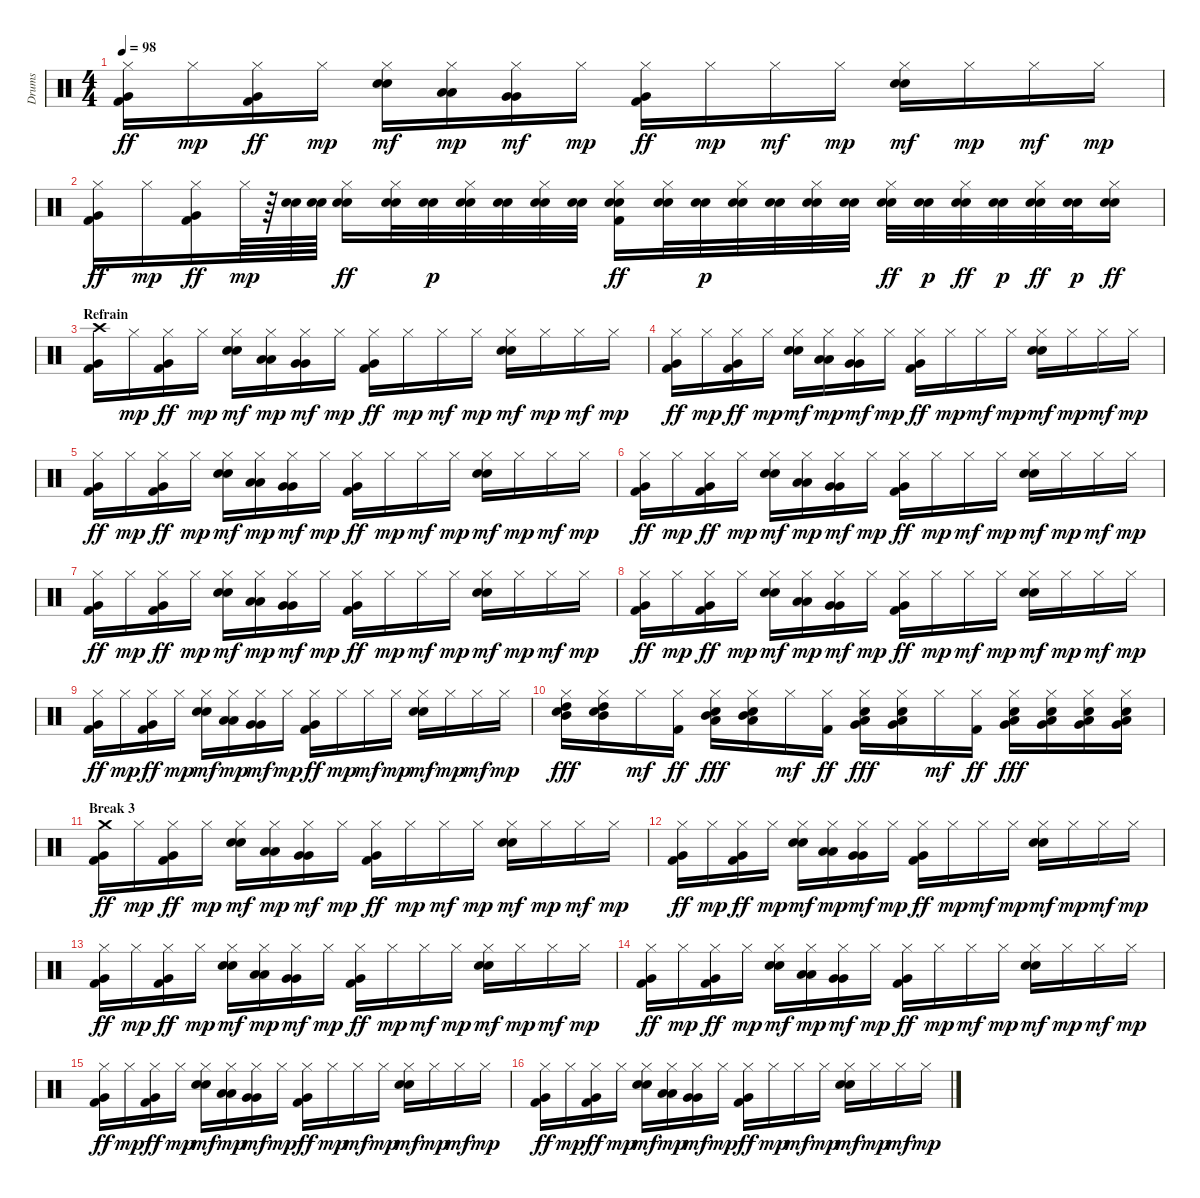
\track ("Drums" "Drums") {instrument percussion}
\staff {score}
\articulation defaults
\ts (4 4)
\tempo 98
\clef neutral
\ks c
("Hi-Hat (closed)" "Very Low Tom (hit)" "Kick (hit) 2").16{dy ff} "Hi-Hat (closed)".16{dy mp} ("Hi-Hat (closed)" "Very Low Tom (hit)" "Kick (hit) 2").16{dy ff} "Hi-Hat (closed)".16{dy mp} ("Hi-Hat (closed)" "Electric Snare (hit)" "Snare (hit) 2").16{dy mf} ("Hi-Hat (closed)" "Low Tom (hit)" "Low Tom (hit)").16{dy mp} ("Hi-Hat (closed)" "Very Low Tom (hit)" "Very Low Tom (hit)").16{dy mf} "Hi-Hat (closed)".16{dy mp} ("Hi-Hat (closed)" "Very Low Tom (hit)" "Kick (hit) 2").16{dy ff} "Hi-Hat (closed)".16{dy mp} "Hi-Hat (closed)".16{dy mf} "Hi-Hat (closed)".16{dy mp} ("Hi-Hat (closed)" "Electric Snare (hit)" "Snare (hit) 2").16{dy mf} "Hi-Hat (closed)".16{dy mp} "Hi-Hat (closed)".16{dy mf} "Hi-Hat (closed)".16{dy mp} |
("Hi-Hat (closed)" "Very Low Tom (hit)" "Kick (hit) 2").16{dy ff} "Hi-Hat (closed)".16{dy mp} ("Hi-Hat (closed)" "Very Low Tom (hit)" "Kick (hit) 2").16{dy ff} "Hi-Hat (closed)".64{dy mp} r.64 ("Electric Snare (hit)" "Snare (hit) 2").64 ("Electric Snare (hit)" "Snare (hit) 2").64 ("Hi-Hat (closed)" "Electric Snare (hit)" "Snare (hit) 2").16{dy ff} ("Hi-Hat (closed)" "Electric Snare (hit)" "Snare (hit) 2").32 ("Electric Snare (hit)" "Snare (hit) 2").32{dy p} ("Hi-Hat (closed)" "Electric Snare (hit)" "Snare (hit) 2").32 ("Electric Snare (hit)" "Snare (hit) 2").32 ("Hi-Hat (closed)" "Electric Snare (hit)" "Snare (hit) 2").32 ("Electric Snare (hit)" "Snare (hit) 2").32 ("Hi-Hat (closed)" "Electric Snare (hit)" "Snare (hit) 2" "Kick (hit) 2").16{dy ff} ("Hi-Hat (closed)" "Electric Snare (hit)" "Snare (hit) 2").32 ("Electric Snare (hit)" "Snare (hit) 2").32{dy p} ("Hi-Hat (closed)" "Electric Snare (hit)" "Snare (hit) 2").32 ("Electric Snare (hit)" "Snare (hit) 2").32 ("Hi-Hat (closed)" "Electric Snare (hit)" "Snare (hit) 2").32 ("Electric Snare (hit)" "Snare (hit) 2").32 ("Hi-Hat (closed)" "Electric Snare (hit)" "Snare (hit) 2").32{dy ff} ("Electric Snare (hit)" "Snare (hit) 2").32{dy p} ("Hi-Hat (closed)" "Electric Snare (hit)" "Snare (hit) 2").32{dy ff} ("Electric Snare (hit)" "Snare (hit) 2").32{dy p} ("Hi-Hat (closed)" "Electric Snare (hit)" "Snare (hit) 2").32{dy ff} ("Electric Snare (hit)" "Snare (hit) 2").32{dy p} ("Hi-Hat (closed)" "Electric Snare (hit)" "Snare (hit) 2").16{dy ff} |
\section ("" "Refrain")
("Crash high (hit)" "Very Low Tom (hit)" "Kick (hit) 2").16 "Hi-Hat (closed)".16{dy mp} ("Hi-Hat (closed)" "Very Low Tom (hit)" "Kick (hit) 2").16{dy ff} "Hi-Hat (closed)".16{dy mp} ("Hi-Hat (closed)" "Electric Snare (hit)" "Snare (hit) 2").16{dy mf} ("Hi-Hat (closed)" "Low Tom (hit)" "Low Tom (hit)").16{dy mp} ("Hi-Hat (closed)" "Very Low Tom (hit)" "Very Low Tom (hit)").16{dy mf} "Hi-Hat (closed)".16{dy mp} ("Hi-Hat (closed)" "Very Low Tom (hit)" "Kick (hit) 2").16{dy ff} "Hi-Hat (closed)".16{dy mp} "Hi-Hat (closed)".16{dy mf} "Hi-Hat (closed)".16{dy mp} ("Hi-Hat (closed)" "Electric Snare (hit)" "Snare (hit) 2").16{dy mf} "Hi-Hat (closed)".16{dy mp} "Hi-Hat (closed)".16{dy mf} "Hi-Hat (closed)".16{dy mp} |
("Hi-Hat (closed)" "Very Low Tom (hit)" "Kick (hit) 2").16{dy ff} "Hi-Hat (closed)".16{dy mp} ("Hi-Hat (closed)" "Very Low Tom (hit)" "Kick (hit) 2").16{dy ff} "Hi-Hat (closed)".16{dy mp} ("Hi-Hat (closed)" "Electric Snare (hit)" "Snare (hit) 2").16{dy mf} ("Hi-Hat (closed)" "Low Tom (hit)" "Low Tom (hit)").16{dy mp} ("Hi-Hat (closed)" "Very Low Tom (hit)" "Very Low Tom (hit)").16{dy mf} "Hi-Hat (closed)".16{dy mp} ("Hi-Hat (closed)" "Very Low Tom (hit)" "Kick (hit) 2").16{dy ff} "Hi-Hat (closed)".16{dy mp} "Hi-Hat (closed)".16{dy mf} "Hi-Hat (closed)".16{dy mp} ("Hi-Hat (closed)" "Electric Snare (hit)" "Snare (hit) 2").16{dy mf} "Hi-Hat (closed)".16{dy mp} "Hi-Hat (closed)".16{dy mf} "Hi-Hat (closed)".16{dy mp} |
("Hi-Hat (closed)" "Very Low Tom (hit)" "Kick (hit) 2").16{dy ff} "Hi-Hat (closed)".16{dy mp} ("Hi-Hat (closed)" "Very Low Tom (hit)" "Kick (hit) 2").16{dy ff} "Hi-Hat (closed)".16{dy mp} ("Hi-Hat (closed)" "Electric Snare (hit)" "Snare (hit) 2").16{dy mf} ("Hi-Hat (closed)" "Low Tom (hit)" "Low Tom (hit)").16{dy mp} ("Hi-Hat (closed)" "Very Low Tom (hit)" "Very Low Tom (hit)").16{dy mf} "Hi-Hat (closed)".16{dy mp} ("Hi-Hat (closed)" "Very Low Tom (hit)" "Kick (hit) 2").16{dy ff} "Hi-Hat (closed)".16{dy mp} "Hi-Hat (closed)".16{dy mf} "Hi-Hat (closed)".16{dy mp} ("Hi-Hat (closed)" "Electric Snare (hit)" "Snare (hit) 2").16{dy mf} "Hi-Hat (closed)".16{dy mp} "Hi-Hat (closed)".16{dy mf} "Hi-Hat (closed)".16{dy mp} |
("Hi-Hat (closed)" "Very Low Tom (hit)" "Kick (hit) 2").16{dy ff} "Hi-Hat (closed)".16{dy mp} ("Hi-Hat (closed)" "Very Low Tom (hit)" "Kick (hit) 2").16{dy ff} "Hi-Hat (closed)".16{dy mp} ("Hi-Hat (closed)" "Electric Snare (hit)" "Snare (hit) 2").16{dy mf} ("Hi-Hat (closed)" "Low Tom (hit)" "Low Tom (hit)").16{dy mp} ("Hi-Hat (closed)" "Very Low Tom (hit)" "Very Low Tom (hit)").16{dy mf} "Hi-Hat (closed)".16{dy mp} ("Hi-Hat (closed)" "Very Low Tom (hit)" "Kick (hit) 2").16{dy ff} "Hi-Hat (closed)".16{dy mp} "Hi-Hat (closed)".16{dy mf} "Hi-Hat (closed)".16{dy mp} ("Hi-Hat (closed)" "Electric Snare (hit)" "Snare (hit) 2").16{dy mf} "Hi-Hat (closed)".16{dy mp} "Hi-Hat (closed)".16{dy mf} "Hi-Hat (closed)".16{dy mp} |
("Hi-Hat (closed)" "Very Low Tom (hit)" "Kick (hit) 2").16{dy ff} "Hi-Hat (closed)".16{dy mp} ("Hi-Hat (closed)" "Very Low Tom (hit)" "Kick (hit) 2").16{dy ff} "Hi-Hat (closed)".16{dy mp} ("Hi-Hat (closed)" "Electric Snare (hit)" "Snare (hit) 2").16{dy mf} ("Hi-Hat (closed)" "Low Tom (hit)" "Low Tom (hit)").16{dy mp} ("Hi-Hat (closed)" "Very Low Tom (hit)" "Very Low Tom (hit)").16{dy mf} "Hi-Hat (closed)".16{dy mp} ("Hi-Hat (closed)" "Very Low Tom (hit)" "Kick (hit) 2").16{dy ff} "Hi-Hat (closed)".16{dy mp} "Hi-Hat (closed)".16{dy mf} "Hi-Hat (closed)".16{dy mp} ("Hi-Hat (closed)" "Electric Snare (hit)" "Snare (hit) 2").16{dy mf} "Hi-Hat (closed)".16{dy mp} "Hi-Hat (closed)".16{dy mf} "Hi-Hat (closed)".16{dy mp} |
("Hi-Hat (closed)" "Very Low Tom (hit)" "Kick (hit) 2").16{dy ff} "Hi-Hat (closed)".16{dy mp} ("Hi-Hat (closed)" "Very Low Tom (hit)" "Kick (hit) 2").16{dy ff} "Hi-Hat (closed)".16{dy mp} ("Hi-Hat (closed)" "Electric Snare (hit)" "Snare (hit) 2").16{dy mf} ("Hi-Hat (closed)" "Low Tom (hit)" "Low Tom (hit)").16{dy mp} ("Hi-Hat (closed)" "Very Low Tom (hit)" "Very Low Tom (hit)").16{dy mf} "Hi-Hat (closed)".16{dy mp} ("Hi-Hat (closed)" "Very Low Tom (hit)" "Kick (hit) 2").16{dy ff} "Hi-Hat (closed)".16{dy mp} "Hi-Hat (closed)".16{dy mf} "Hi-Hat (closed)".16{dy mp} ("Hi-Hat (closed)" "Electric Snare (hit)" "Snare (hit) 2").16{dy mf} "Hi-Hat (closed)".16{dy mp} "Hi-Hat (closed)".16{dy mf} "Hi-Hat (closed)".16{dy mp} |
("Hi-Hat (closed)" "Very Low Tom (hit)" "Kick (hit) 2").16{dy ff} "Hi-Hat (closed)".16{dy mp} ("Hi-Hat (closed)" "Very Low Tom (hit)" "Kick (hit) 2").16{dy ff} "Hi-Hat (closed)".16{dy mp} ("Hi-Hat (closed)" "Electric Snare (hit)" "Snare (hit) 2").16{dy mf} ("Hi-Hat (closed)" "Low Tom (hit)" "Low Tom (hit)").16{dy mp} ("Hi-Hat (closed)" "Very Low Tom (hit)" "Very Low Tom (hit)").16{dy mf} "Hi-Hat (closed)".16{dy mp} ("Hi-Hat (closed)" "Very Low Tom (hit)" "Kick (hit) 2").16{dy ff} "Hi-Hat (closed)".16{dy mp} "Hi-Hat (closed)".16{dy mf} "Hi-Hat (closed)".16{dy mp} ("Hi-Hat (closed)" "Electric Snare (hit)" "Snare (hit) 2").16{dy mf} "Hi-Hat (closed)".16{dy mp} "Hi-Hat (closed)".16{dy mf} "Hi-Hat (closed)".16{dy mp} |
("Hi-Hat (closed)" "High Tom (hit)" "Mid Tom (hit)" "Electric Snare (hit)").16{dy fff} ("Hi-Hat (closed)" "High Tom (hit)" "Mid Tom (hit)" "Electric Snare (hit)").16 "Hi-Hat (closed)".16{dy mf} ("Hi-Hat (closed)" "Kick (hit) 2").16{dy ff} ("Hi-Hat (closed)" "Mid Tom (hit)" "Low Tom (hit)" "Electric Snare (hit)").16{dy fff} ("Hi-Hat (closed)" "Mid Tom (hit)" "Low Tom (hit)" "Electric Snare (hit)").16 "Hi-Hat (closed)".16{dy mf} ("Hi-Hat (closed)" "Kick (hit) 2").16{dy ff} ("Hi-Hat (closed)" "Low Tom (hit)" "Very Low Tom (hit)" "Electric Snare (hit)").16{dy fff} ("Hi-Hat (closed)" "Low Tom (hit)" "Very Low Tom (hit)" "Electric Snare (hit)").16 "Hi-Hat (closed)".16{dy mf} ("Hi-Hat (closed)" "Kick (hit) 2").16{dy ff} ("Hi-Hat (closed)" "Very Low Tom (hit)" "Low Floor Tom (hit)" "Electric Snare (hit)").16{dy fff} ("Hi-Hat (closed)" "Very Low Tom (hit)" "Low Floor Tom (hit)" "Electric Snare (hit)").16 ("Hi-Hat (closed)" "Very Low Tom (hit)" "Low Floor Tom (hit)" "Electric Snare (hit)").16 ("Hi-Hat (closed)" "Very Low Tom (hit)" "Low Floor Tom (hit)" "Electric Snare (hit)").16 |
\section ("" "Break 3")
("Crash medium (hit)" "Very Low Tom (hit)" "Kick (hit) 2").16{dy ff} "Hi-Hat (closed)".16{dy mp} ("Hi-Hat (closed)" "Very Low Tom (hit)" "Kick (hit) 2").16{dy ff} "Hi-Hat (closed)".16{dy mp} ("Hi-Hat (closed)" "Electric Snare (hit)" "Snare (hit) 2").16{dy mf} ("Hi-Hat (closed)" "Low Tom (hit)" "Low Tom (hit)").16{dy mp} ("Hi-Hat (closed)" "Very Low Tom (hit)" "Very Low Tom (hit)").16{dy mf} "Hi-Hat (closed)".16{dy mp} ("Hi-Hat (closed)" "Very Low Tom (hit)" "Kick (hit) 2").16{dy ff} "Hi-Hat (closed)".16{dy mp} "Hi-Hat (closed)".16{dy mf} "Hi-Hat (closed)".16{dy mp} ("Hi-Hat (closed)" "Electric Snare (hit)" "Snare (hit) 2").16{dy mf} "Hi-Hat (closed)".16{dy mp} "Hi-Hat (closed)".16{dy mf} "Hi-Hat (closed)".16{dy mp} |
("Hi-Hat (closed)" "Very Low Tom (hit)" "Kick (hit) 2").16{dy ff} "Hi-Hat (closed)".16{dy mp} ("Hi-Hat (closed)" "Very Low Tom (hit)" "Kick (hit) 2").16{dy ff} "Hi-Hat (closed)".16{dy mp} ("Hi-Hat (closed)" "Electric Snare (hit)" "Snare (hit) 2").16{dy mf} ("Hi-Hat (closed)" "Low Tom (hit)" "Low Tom (hit)").16{dy mp} ("Hi-Hat (closed)" "Very Low Tom (hit)" "Very Low Tom (hit)").16{dy mf} "Hi-Hat (closed)".16{dy mp} ("Hi-Hat (closed)" "Very Low Tom (hit)" "Kick (hit) 2").16{dy ff} "Hi-Hat (closed)".16{dy mp} "Hi-Hat (closed)".16{dy mf} "Hi-Hat (closed)".16{dy mp} ("Hi-Hat (closed)" "Electric Snare (hit)" "Snare (hit) 2").16{dy mf} "Hi-Hat (closed)".16{dy mp} "Hi-Hat (closed)".16{dy mf} "Hi-Hat (closed)".16{dy mp} |
("Hi-Hat (closed)" "Very Low Tom (hit)" "Kick (hit) 2").16{dy ff} "Hi-Hat (closed)".16{dy mp} ("Hi-Hat (closed)" "Very Low Tom (hit)" "Kick (hit) 2").16{dy ff} "Hi-Hat (closed)".16{dy mp} ("Hi-Hat (closed)" "Electric Snare (hit)" "Snare (hit) 2").16{dy mf} ("Hi-Hat (closed)" "Low Tom (hit)" "Low Tom (hit)").16{dy mp} ("Hi-Hat (closed)" "Very Low Tom (hit)" "Very Low Tom (hit)").16{dy mf} "Hi-Hat (closed)".16{dy mp} ("Hi-Hat (closed)" "Very Low Tom (hit)" "Kick (hit) 2").16{dy ff} "Hi-Hat (closed)".16{dy mp} "Hi-Hat (closed)".16{dy mf} "Hi-Hat (closed)".16{dy mp} ("Hi-Hat (closed)" "Electric Snare (hit)" "Snare (hit) 2").16{dy mf} "Hi-Hat (closed)".16{dy mp} "Hi-Hat (closed)".16{dy mf} "Hi-Hat (closed)".16{dy mp} |
("Hi-Hat (closed)" "Very Low Tom (hit)" "Kick (hit) 2").16{dy ff} "Hi-Hat (closed)".16{dy mp} ("Hi-Hat (closed)" "Very Low Tom (hit)" "Kick (hit) 2").16{dy ff} "Hi-Hat (closed)".16{dy mp} ("Hi-Hat (closed)" "Electric Snare (hit)" "Snare (hit) 2").16{dy mf} ("Hi-Hat (closed)" "Low Tom (hit)" "Low Tom (hit)").16{dy mp} ("Hi-Hat (closed)" "Very Low Tom (hit)" "Very Low Tom (hit)").16{dy mf} "Hi-Hat (closed)".16{dy mp} ("Hi-Hat (closed)" "Very Low Tom (hit)" "Kick (hit) 2").16{dy ff} "Hi-Hat (closed)".16{dy mp} "Hi-Hat (closed)".16{dy mf} "Hi-Hat (closed)".16{dy mp} ("Hi-Hat (closed)" "Electric Snare (hit)" "Snare (hit) 2").16{dy mf} "Hi-Hat (closed)".16{dy mp} "Hi-Hat (closed)".16{dy mf} "Hi-Hat (closed)".16{dy mp} |
("Hi-Hat (closed)" "Very Low Tom (hit)" "Kick (hit) 2").16{dy ff} "Hi-Hat (closed)".16{dy mp} ("Hi-Hat (closed)" "Very Low Tom (hit)" "Kick (hit) 2").16{dy ff} "Hi-Hat (closed)".16{dy mp} ("Hi-Hat (closed)" "Electric Snare (hit)" "Snare (hit) 2").16{dy mf} ("Hi-Hat (closed)" "Low Tom (hit)" "Low Tom (hit)").16{dy mp} ("Hi-Hat (closed)" "Very Low Tom (hit)" "Very Low Tom (hit)").16{dy mf} "Hi-Hat (closed)".16{dy mp} ("Hi-Hat (closed)" "Very Low Tom (hit)" "Kick (hit) 2").16{dy ff} "Hi-Hat (closed)".16{dy mp} "Hi-Hat (closed)".16{dy mf} "Hi-Hat (closed)".16{dy mp} ("Hi-Hat (closed)" "Electric Snare (hit)" "Snare (hit) 2").16{dy mf} "Hi-Hat (closed)".16{dy mp} "Hi-Hat (closed)".16{dy mf} "Hi-Hat (closed)".16{dy mp} |
("Hi-Hat (closed)" "Very Low Tom (hit)" "Kick (hit) 2").16{dy ff} "Hi-Hat (closed)".16{dy mp} ("Hi-Hat (closed)" "Very Low Tom (hit)" "Kick (hit) 2").16{dy ff} "Hi-Hat (closed)".16{dy mp} ("Hi-Hat (closed)" "Electric Snare (hit)" "Snare (hit) 2").16{dy mf} ("Hi-Hat (closed)" "Low Tom (hit)" "Low Tom (hit)").16{dy mp} ("Hi-Hat (closed)" "Very Low Tom (hit)" "Very Low Tom (hit)").16{dy mf} "Hi-Hat (closed)".16{dy mp} ("Hi-Hat (closed)" "Very Low Tom (hit)" "Kick (hit) 2").16{dy ff} "Hi-Hat (closed)".16{dy mp} "Hi-Hat (closed)".16{dy mf} "Hi-Hat (closed)".16{dy mp} ("Hi-Hat (closed)" "Electric Snare (hit)" "Snare (hit) 2").16{dy mf} "Hi-Hat (closed)".16{dy mp} "Hi-Hat (closed)".16{dy mf} "Hi-Hat (closed)".16{dy mp}
